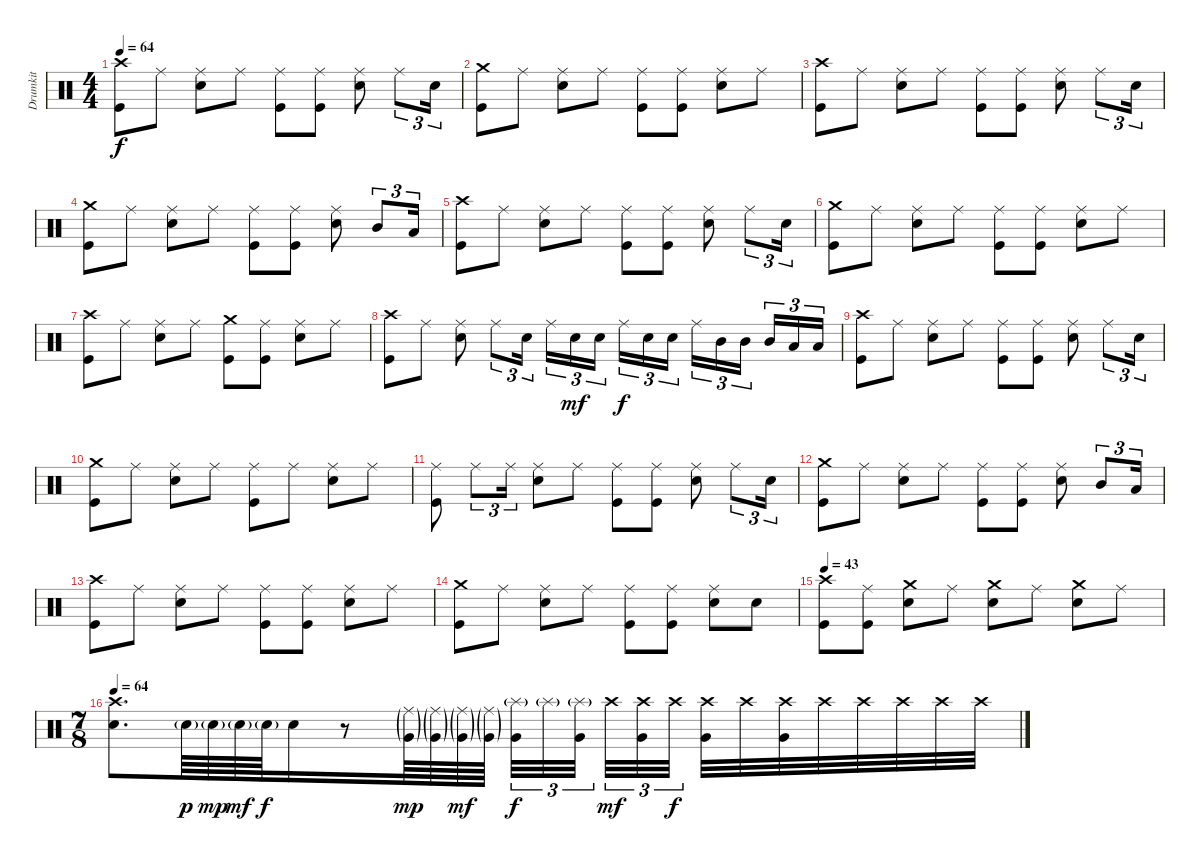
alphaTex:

\track ("Drumkit" "Drumkit") {instrument percussion}
\staff {score}
\articulation defaults
\ts (4 4)
\tempo 64
\clef neutral
\ks c
("Crash high (hit)" "Kick (hit)").8{dy f} "Ride (middle)".8 ("Ride (middle)" "Snare (hit) 2").8 "Ride (middle)".8 ("Ride (middle)" "Kick (hit)").8 ("Ride (middle)" "Kick (hit)").8 ("Ride (middle)" "Snare (hit) 2").8 "Ride (middle)".8{tu (3 2)} "Snare (hit) 2".16{tu (3 2)} |
("Crash medium (hit)" "Kick (hit)").8 "Ride (middle)".8 ("Ride (middle)" "Snare (hit) 2").8 "Ride (middle)".8 ("Ride (middle)" "Kick (hit)").8 ("Ride (middle)" "Kick (hit)").8 ("Ride (middle)" "Snare (hit) 2").8 "Ride (middle)".8 |
("Crash high (hit)" "Kick (hit)").8 "Ride (middle)".8 ("Ride (middle)" "Snare (hit) 2").8 "Ride (middle)".8 ("Ride (middle)" "Kick (hit)").8 ("Ride (middle)" "Kick (hit)").8 ("Ride (middle)" "Snare (hit) 2").8 "Ride (middle)".8{tu (3 2)} "Snare (hit) 2".16{tu (3 2)} |
("Crash medium (hit)" "Kick (hit)").8 "Ride (middle)".8 ("Ride (middle)" "Snare (hit) 2").8 "Ride (middle)".8 ("Ride (middle)" "Kick (hit)").8 ("Ride (middle)" "Kick (hit)").8 ("Ride (middle)" "Snare (hit) 2").8 "Mid Tom (hit)".8{tu (3 2)} "Low Tom (hit)".16{tu (3 2)} |
("Crash high (hit)" "Kick (hit)").8 "Ride (middle)".8 ("Ride (middle)" "Snare (hit) 2").8 "Ride (middle)".8 ("Ride (middle)" "Kick (hit)").8 ("Ride (middle)" "Kick (hit)").8 ("Ride (middle)" "Snare (hit) 2").8 "Ride (middle)".8{tu (3 2)} "Snare (hit) 2".16{tu (3 2)} |
("Crash medium (hit)" "Kick (hit)").8 "Ride (middle)".8 ("Ride (middle)" "Snare (hit) 2").8 "Ride (middle)".8 ("Ride (middle)" "Kick (hit)").8 ("Ride (middle)" "Kick (hit)").8 ("Ride (middle)" "Snare (hit) 2").8 "Ride (middle)".8 |
("Crash high (hit)" "Kick (hit)").8 "Ride (middle)".8 ("Ride (middle)" "Snare (hit) 2").8 "Ride (middle)".8 ("Crash medium (hit)" "Kick (hit)").8 ("Ride (middle)" "Kick (hit)").8 ("Ride (middle)" "Snare (hit) 2").8 "Ride (middle)".8 |
("Crash high (hit)" "Kick (hit)").8 "Ride (middle)".8 ("Ride (middle)" "Snare (hit) 2").8 "Ride (middle)".8{tu (3 2)} "Snare (hit) 2".16{tu (3 2)} "Ride (middle)".16{tu (3 2)} "Snare (hit) 2".16{tu (3 2) dy mf} "Snare (hit) 2".16{tu (3 2)} "Ride (middle)".16{tu (3 2) dy f} "Snare (hit) 2".16{tu (3 2)} "Snare (hit) 2".16{tu (3 2)} "Ride (middle)".16{tu (3 2)} "Mid Tom (hit)".16{tu (3 2)} "Mid Tom (hit)".16{tu (3 2)} "Mid Tom (hit)".16{tu (3 2)} "Low Tom (hit)".16{tu (3 2)} "Low Tom (hit)".16{tu (3 2)} |
("Crash high (hit)" "Kick (hit)").8 "Ride (middle)".8 ("Ride (middle)" "Snare (hit) 2").8 "Ride (middle)".8 ("Ride (middle)" "Kick (hit)").8 ("Ride (middle)" "Kick (hit)").8 ("Ride (middle)" "Snare (hit) 2").8 "Ride (middle)".8{tu (3 2)} "Snare (hit) 2".16{tu (3 2)} |
("Crash medium (hit)" "Kick (hit)").8 "Ride (middle)".8 ("Ride (middle)" "Snare (hit) 2").8 "Ride (middle)".8 ("Ride (middle)" "Kick (hit)").8 "Ride (middle)".8 ("Ride (middle)" "Snare (hit) 2").8 "Ride (middle)".8 |
("Ride (middle)" "Kick (hit)").8 "Ride (middle)".8{tu (3 2)} "Ride (middle)".16{tu (3 2)} ("Ride (middle)" "Snare (hit) 2").8 "Ride (middle)".8 ("Ride (middle)" "Kick (hit)").8 ("Ride (middle)" "Kick (hit)").8 ("Ride (middle)" "Snare (hit) 2").8 "Ride (middle)".8{tu (3 2)} "Snare (hit) 2".16{tu (3 2)} |
("Crash medium (hit)" "Kick (hit)").8 "Ride (middle)".8 ("Ride (middle)" "Snare (hit) 2").8 "Ride (middle)".8 ("Ride (middle)" "Kick (hit)").8 ("Ride (middle)" "Kick (hit)").8 ("Ride (middle)" "Snare (hit) 2").8 "Mid Tom (hit)".8{tu (3 2)} "Low Tom (hit)".16{tu (3 2)} |
("Crash high (hit)" "Kick (hit)").8 "Ride (middle)".8 ("Ride (middle)" "Snare (hit) 2").8 "Ride (middle)".8 ("Ride (middle)" "Kick (hit)").8 ("Ride (middle)" "Kick (hit)").8 ("Ride (middle)" "Snare (hit) 2").8 "Ride (middle)".8 |
("Crash medium (hit)" "Kick (hit)").8 "Ride (middle)".8 ("Ride (middle)" "Snare (hit) 2").8 "Ride (middle)".8 ("Ride (middle)" "Kick (hit)").8 ("Ride (middle)" "Kick (hit)").8 ("Ride (middle)" "Snare (hit) 2").8 "Snare (hit) 2".8 |
\tempo 43
("Crash high (hit)" "Kick (hit)").8 ("Ride (middle)" "Kick (hit)").8 ("Crash medium (hit)" "Snare (hit) 2").8 "Ride (middle)".8 ("Crash medium (hit)" "Snare (hit) 2").8 "Ride (middle)".8 ("Crash medium (hit)" "Snare (hit) 2").8 "Ride (middle)".8 |
\ts (7 8)
\tempo 64
("Crash high (hit)" "Snare (hit) 2").8{d} "Snare (hit) 2"{g}.64{dy p} "Snare (hit) 2"{g}.64{dy mp} "Snare (hit) 2"{g}.64{dy mf} "Snare (hit) 2"{g}.64{dy f} "Snare (hit) 2".16 r.8 ("Ride (middle)"{g} "Very Low Tom (hit)"{g}).64{dy mp} ("Ride (middle)"{g} "Very Low Tom (hit)"{g}).64 ("Ride (middle)"{g} "Very Low Tom (hit)"{g}).64{dy mf} ("Ride (middle)"{g} "Very Low Tom (hit)"{g}).64 ("Splash (hit)"{g} "Very Low Tom (hit)").32{tu (3 2) dy f} "Splash (hit)"{g}.32{tu (3 2)} ("Splash (hit)"{g} "Very Low Tom (hit)").32{tu (3 2)} "Crash high (hit)".32{tu (3 2) dy mf} ("Crash high (hit)" "Very Low Tom (hit)").32{tu (3 2)} "Crash high (hit)".32{tu (3 2) dy f} ("Crash high (hit)" "Very Low Tom (hit)").32 "Crash high (hit)".32 ("Crash high (hit)" "Very Low Tom (hit)").32 "Crash high (hit)".32 "Crash high (hit)".32 "Crash high (hit)".32 "Crash high (hit)".32 "Crash high (hit)".32
